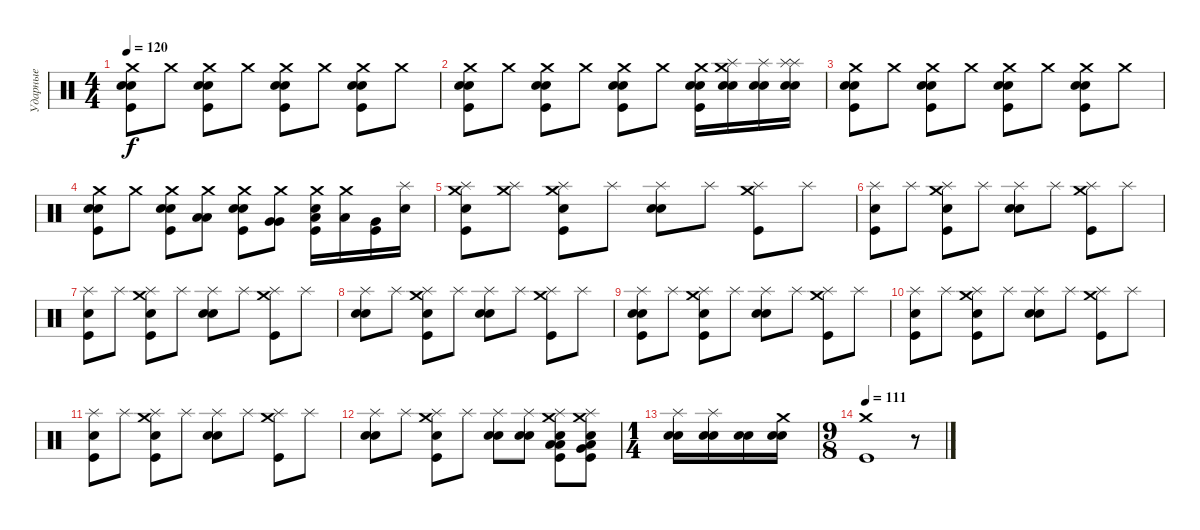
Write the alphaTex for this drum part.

\track ("Ударные" "Ударные") {instrument percussion}
\staff {score}
\articulation defaults
\ts (4 4)
\tempo 120
\clef neutral
\ks c
("Crash medium (hit)" "Electric Snare (hit)" "Electric Snare (hit)" "Kick (hit)").8{dy f} "Crash medium (hit)".8 ("Crash medium (hit)" "Electric Snare (hit)" "Electric Snare (hit)" "Kick (hit)").8 "Crash medium (hit)".8 ("Crash medium (hit)" "Electric Snare (hit)" "Electric Snare (hit)" "Kick (hit)").8 "Crash medium (hit)".8 ("Crash medium (hit)" "Electric Snare (hit)" "Electric Snare (hit)" "Kick (hit)").8 "Crash medium (hit)".8 |
("Crash medium (hit)" "Electric Snare (hit)" "Electric Snare (hit)" "Kick (hit)").8 "Crash medium (hit)".8 ("Crash medium (hit)" "Electric Snare (hit)" "Electric Snare (hit)" "Kick (hit)").8 "Crash medium (hit)".8 ("Crash medium (hit)" "Electric Snare (hit)" "Electric Snare (hit)" "Kick (hit)").8 "Crash medium (hit)".8 ("Crash medium (hit)" "Electric Snare (hit)" "Electric Snare (hit)" "Kick (hit)").16 ("Crash medium (hit)" "Splash (hit)" "Snare (hit) 2" "Snare (hit) 2").16 ("Splash (hit)" "Snare (hit) 2" "Snare (hit) 2").16 ("Splash (hit)" "Splash (hit)" "Electric Snare (hit)" "Electric Snare (hit)").16 |
("Crash medium (hit)" "Electric Snare (hit)" "Electric Snare (hit)" "Kick (hit)").8 "Crash medium (hit)".8 ("Crash medium (hit)" "Electric Snare (hit)" "Electric Snare (hit)" "Kick (hit)").8 "Crash medium (hit)".8 ("Crash medium (hit)" "Electric Snare (hit)" "Electric Snare (hit)" "Kick (hit)").8 "Crash medium (hit)".8 ("Crash medium (hit)" "Electric Snare (hit)" "Electric Snare (hit)" "Kick (hit)").8 "Crash medium (hit)".8 |
("Crash medium (hit)" "Electric Snare (hit)" "Electric Snare (hit)" "Kick (hit)").8 "Crash medium (hit)".8 ("Crash medium (hit)" "Electric Snare (hit)" "Electric Snare (hit)" "Kick (hit)").8 ("Crash medium (hit)" "Low Floor Tom (hit)" "Low Floor Tom (hit)").8 ("Crash medium (hit)" "Electric Snare (hit)" "Electric Snare (hit)" "Kick (hit)").8 ("Crash medium (hit)" "Very Low Tom (hit)" "Very Low Tom (hit)").8 ("Crash medium (hit)" "Low Floor Tom (hit)" "Electric Snare (hit)" "Kick (hit)").16 ("Crash medium (hit)" "Low Floor Tom (hit)").16 ("Very Low Tom (hit)" "Kick (hit)").16 ("Splash (hit)" "Electric Snare (hit)").16 |
("Splash (hit)" "Crash medium (hit)" "Electric Snare (hit)" "Kick (hit)").8 ("Splash (hit)" "Crash medium (hit)").8 ("Crash medium (hit)" "Splash (hit)" "Electric Snare (hit)" "Kick (hit)").8 "Splash (hit)".8 ("Splash (hit)" "Electric Snare (hit)" "Electric Snare (hit)").8 "Splash (hit)".8 ("Crash medium (hit)" "Splash (hit)" "Kick (hit)").8 "Splash (hit)".8 |
("Splash (hit)" "Electric Snare (hit)" "Kick (hit)").8 "Splash (hit)".8 ("Crash medium (hit)" "Splash (hit)" "Electric Snare (hit)" "Kick (hit)").8 "Splash (hit)".8 ("Splash (hit)" "Electric Snare (hit)" "Electric Snare (hit)").8 "Splash (hit)".8 ("Crash medium (hit)" "Splash (hit)" "Kick (hit)").8 "Splash (hit)".8 |
("Splash (hit)" "Electric Snare (hit)" "Kick (hit)").8 "Splash (hit)".8 ("Crash medium (hit)" "Splash (hit)" "Electric Snare (hit)" "Kick (hit)").8 "Splash (hit)".8 ("Splash (hit)" "Electric Snare (hit)" "Electric Snare (hit)").8 "Splash (hit)".8 ("Crash medium (hit)" "Splash (hit)" "Kick (hit)").8 "Splash (hit)".8 |
("Splash (hit)" "Electric Snare (hit)" "Electric Snare (hit)").8 "Splash (hit)".8 ("Crash medium (hit)" "Splash (hit)" "Electric Snare (hit)" "Kick (hit)").8 "Splash (hit)".8 ("Splash (hit)" "Electric Snare (hit)" "Electric Snare (hit)").8 "Splash (hit)".8 ("Crash medium (hit)" "Splash (hit)" "Kick (hit)").8 "Splash (hit)".8 |
("Splash (hit)" "Electric Snare (hit)" "Electric Snare (hit)" "Kick (hit)").8 "Splash (hit)".8 ("Crash medium (hit)" "Splash (hit)" "Electric Snare (hit)" "Kick (hit)").8 "Splash (hit)".8 ("Splash (hit)" "Electric Snare (hit)" "Electric Snare (hit)").8 "Splash (hit)".8 ("Crash medium (hit)" "Splash (hit)" "Kick (hit)").8 "Splash (hit)".8 |
("Splash (hit)" "Electric Snare (hit)" "Kick (hit)").8 "Splash (hit)".8 ("Crash medium (hit)" "Splash (hit)" "Electric Snare (hit)" "Kick (hit)").8 "Splash (hit)".8 ("Splash (hit)" "Electric Snare (hit)" "Electric Snare (hit)").8 "Splash (hit)".8 ("Crash medium (hit)" "Splash (hit)" "Kick (hit)").8 "Splash (hit)".8 |
("Splash (hit)" "Electric Snare (hit)" "Kick (hit)").8 "Splash (hit)".8 ("Crash medium (hit)" "Splash (hit)" "Electric Snare (hit)" "Kick (hit)").8 "Splash (hit)".8 ("Splash (hit)" "Electric Snare (hit)" "Electric Snare (hit)").8 "Splash (hit)".8 ("Crash medium (hit)" "Splash (hit)" "Kick (hit)").8 "Splash (hit)".8 |
("Splash (hit)" "Electric Snare (hit)" "Electric Snare (hit)").8 "Splash (hit)".8 ("Crash medium (hit)" "Splash (hit)" "Electric Snare (hit)" "Kick (hit)").8 "Splash (hit)".8 ("Splash (hit)" "Electric Snare (hit)" "Electric Snare (hit)").8 ("Splash (hit)" "Electric Snare (hit)" "Electric Snare (hit)").8 ("Crash medium (hit)" "Splash (hit)" "Low Floor Tom (hit)" "Low Floor Tom (hit)" "Electric Snare (hit)" "Kick (hit)").8 ("Splash (hit)" "Crash medium (hit)" "Very Low Tom (hit)" "Low Floor Tom (hit)" "Electric Snare (hit)" "Kick (hit)").8 |
\ts (1 4)
("Splash (hit)" "Electric Snare (hit)" "Electric Snare (hit)").16 ("Splash (hit)" "Electric Snare (hit)" "Electric Snare (hit)").16 ("Electric Snare (hit)" "Electric Snare (hit)").16 ("Crash medium (hit)" "Electric Snare (hit)" "Electric Snare (hit)").16 |
\ts (9 8)
\tempo 111
("Crash medium (hit)" "Kick (hit)").1 r.8
